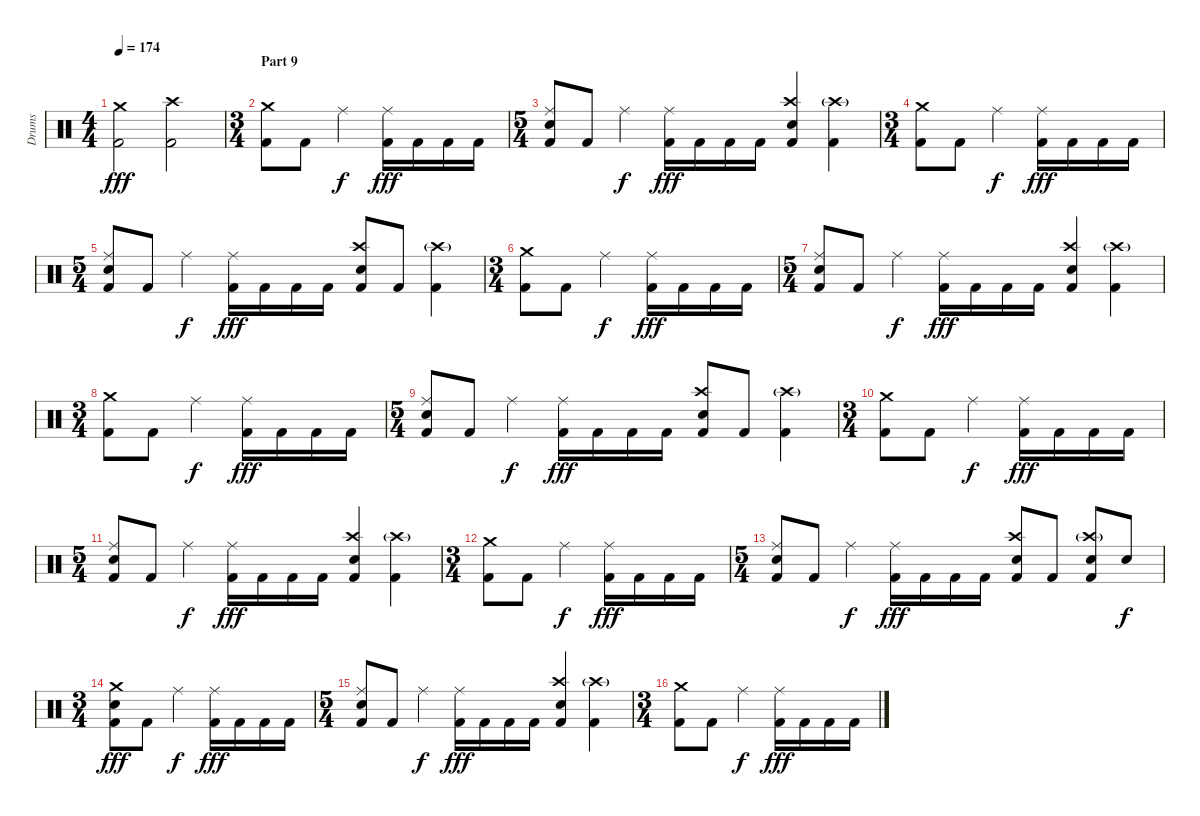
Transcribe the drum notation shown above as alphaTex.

\track ("Drums" "Drums") {instrument percussion}
\staff {score}
\articulation defaults
\ts (4 4)
\tempo 174
\clef neutral
\ks c
("Crash medium (hit)" "Kick (hit) 2").2{dy fff} ("Crash high (hit)" "Kick (hit) 2").2 |
\ts (3 4)
\section ("" "Part 9")
("Crash medium (hit)" "Kick (hit) 2").8 "Kick (hit) 2".8 "Ride (middle)".4{dy f} ("Ride (middle)" "Kick (hit) 2").16{dy fff} "Kick (hit) 2".16 "Kick (hit) 2".16 "Kick (hit) 2".16 |
\ts (5 4)
("Ride (middle)" "Electric Snare (hit)" "Kick (hit) 2").8 "Kick (hit) 2".8 "Ride (middle)".4{dy f} ("Ride (middle)" "Kick (hit) 2").16{dy fff} "Kick (hit) 2".16 "Kick (hit) 2".16 "Kick (hit) 2".16 ("Crash high (hit)" "Electric Snare (hit)" "Kick (hit) 2").4 ("Crash high (hit)"{g} "Kick (hit) 2").4 |
\ts (3 4)
("Crash medium (hit)" "Kick (hit) 2").8 "Kick (hit) 2".8 "Ride (middle)".4{dy f} ("Ride (middle)" "Kick (hit) 2").16{dy fff} "Kick (hit) 2".16 "Kick (hit) 2".16 "Kick (hit) 2".16 |
\ts (5 4)
("Ride (middle)" "Electric Snare (hit)" "Kick (hit) 2").8 "Kick (hit) 2".8 "Ride (middle)".4{dy f} ("Ride (middle)" "Kick (hit) 2").16{dy fff} "Kick (hit) 2".16 "Kick (hit) 2".16 "Kick (hit) 2".16 ("Crash high (hit)" "Electric Snare (hit)" "Kick (hit) 2").8 "Kick (hit) 2".8 ("Crash high (hit)"{g} "Kick (hit) 2").4 |
\ts (3 4)
("Crash medium (hit)" "Kick (hit) 2").8 "Kick (hit) 2".8 "Ride (middle)".4{dy f} ("Ride (middle)" "Kick (hit) 2").16{dy fff} "Kick (hit) 2".16 "Kick (hit) 2".16 "Kick (hit) 2".16 |
\ts (5 4)
("Ride (middle)" "Electric Snare (hit)" "Kick (hit) 2").8 "Kick (hit) 2".8 "Ride (middle)".4{dy f} ("Ride (middle)" "Kick (hit) 2").16{dy fff} "Kick (hit) 2".16 "Kick (hit) 2".16 "Kick (hit) 2".16 ("Crash high (hit)" "Electric Snare (hit)" "Kick (hit) 2").4 ("Crash high (hit)"{g} "Kick (hit) 2").4 |
\ts (3 4)
("Crash medium (hit)" "Kick (hit) 2").8 "Kick (hit) 2".8 "Ride (middle)".4{dy f} ("Ride (middle)" "Kick (hit) 2").16{dy fff} "Kick (hit) 2".16 "Kick (hit) 2".16 "Kick (hit) 2".16 |
\ts (5 4)
("Ride (middle)" "Electric Snare (hit)" "Kick (hit) 2").8 "Kick (hit) 2".8 "Ride (middle)".4{dy f} ("Ride (middle)" "Kick (hit) 2").16{dy fff} "Kick (hit) 2".16 "Kick (hit) 2".16 "Kick (hit) 2".16 ("Crash high (hit)" "Electric Snare (hit)" "Kick (hit) 2").8 "Kick (hit) 2".8 ("Crash high (hit)"{g} "Kick (hit) 2").4 |
\ts (3 4)
("Crash medium (hit)" "Kick (hit) 2").8 "Kick (hit) 2".8 "Ride (middle)".4{dy f} ("Ride (middle)" "Kick (hit) 2").16{dy fff} "Kick (hit) 2".16 "Kick (hit) 2".16 "Kick (hit) 2".16 |
\ts (5 4)
("Ride (middle)" "Electric Snare (hit)" "Kick (hit) 2").8 "Kick (hit) 2".8 "Ride (middle)".4{dy f} ("Ride (middle)" "Kick (hit) 2").16{dy fff} "Kick (hit) 2".16 "Kick (hit) 2".16 "Kick (hit) 2".16 ("Crash high (hit)" "Electric Snare (hit)" "Kick (hit) 2").4 ("Crash high (hit)"{g} "Kick (hit) 2").4 |
\ts (3 4)
("Crash medium (hit)" "Kick (hit) 2").8 "Kick (hit) 2".8 "Ride (middle)".4{dy f} ("Ride (middle)" "Kick (hit) 2").16{dy fff} "Kick (hit) 2".16 "Kick (hit) 2".16 "Kick (hit) 2".16 |
\ts (5 4)
("Ride (middle)" "Electric Snare (hit)" "Kick (hit) 2").8 "Kick (hit) 2".8 "Ride (middle)".4{dy f} ("Ride (middle)" "Kick (hit) 2").16{dy fff} "Kick (hit) 2".16 "Kick (hit) 2".16 "Kick (hit) 2".16 ("Crash high (hit)" "Electric Snare (hit)" "Kick (hit) 2").8 "Kick (hit) 2".8 ("Crash high (hit)"{g} "Electric Snare (hit)" "Kick (hit) 2").8 "Electric Snare (hit)".8{dy f} |
\ts (3 4)
("Crash medium (hit)" "Electric Snare (hit)" "Kick (hit) 2").8{dy fff} "Kick (hit) 2".8 "Ride (middle)".4{dy f} ("Ride (middle)" "Kick (hit) 2").16{dy fff} "Kick (hit) 2".16 "Kick (hit) 2".16 "Kick (hit) 2".16 |
\ts (5 4)
("Ride (middle)" "Electric Snare (hit)" "Kick (hit) 2").8 "Kick (hit) 2".8 "Ride (middle)".4{dy f} ("Ride (middle)" "Kick (hit) 2").16{dy fff} "Kick (hit) 2".16 "Kick (hit) 2".16 "Kick (hit) 2".16 ("Crash high (hit)" "Electric Snare (hit)" "Kick (hit) 2").4 ("Crash high (hit)"{g} "Kick (hit) 2").4 |
\ts (3 4)
("Crash medium (hit)" "Kick (hit) 2").8 "Kick (hit) 2".8 "Ride (middle)".4{dy f} ("Ride (middle)" "Kick (hit) 2").16{dy fff} "Kick (hit) 2".16 "Kick (hit) 2".16 "Kick (hit) 2".16
